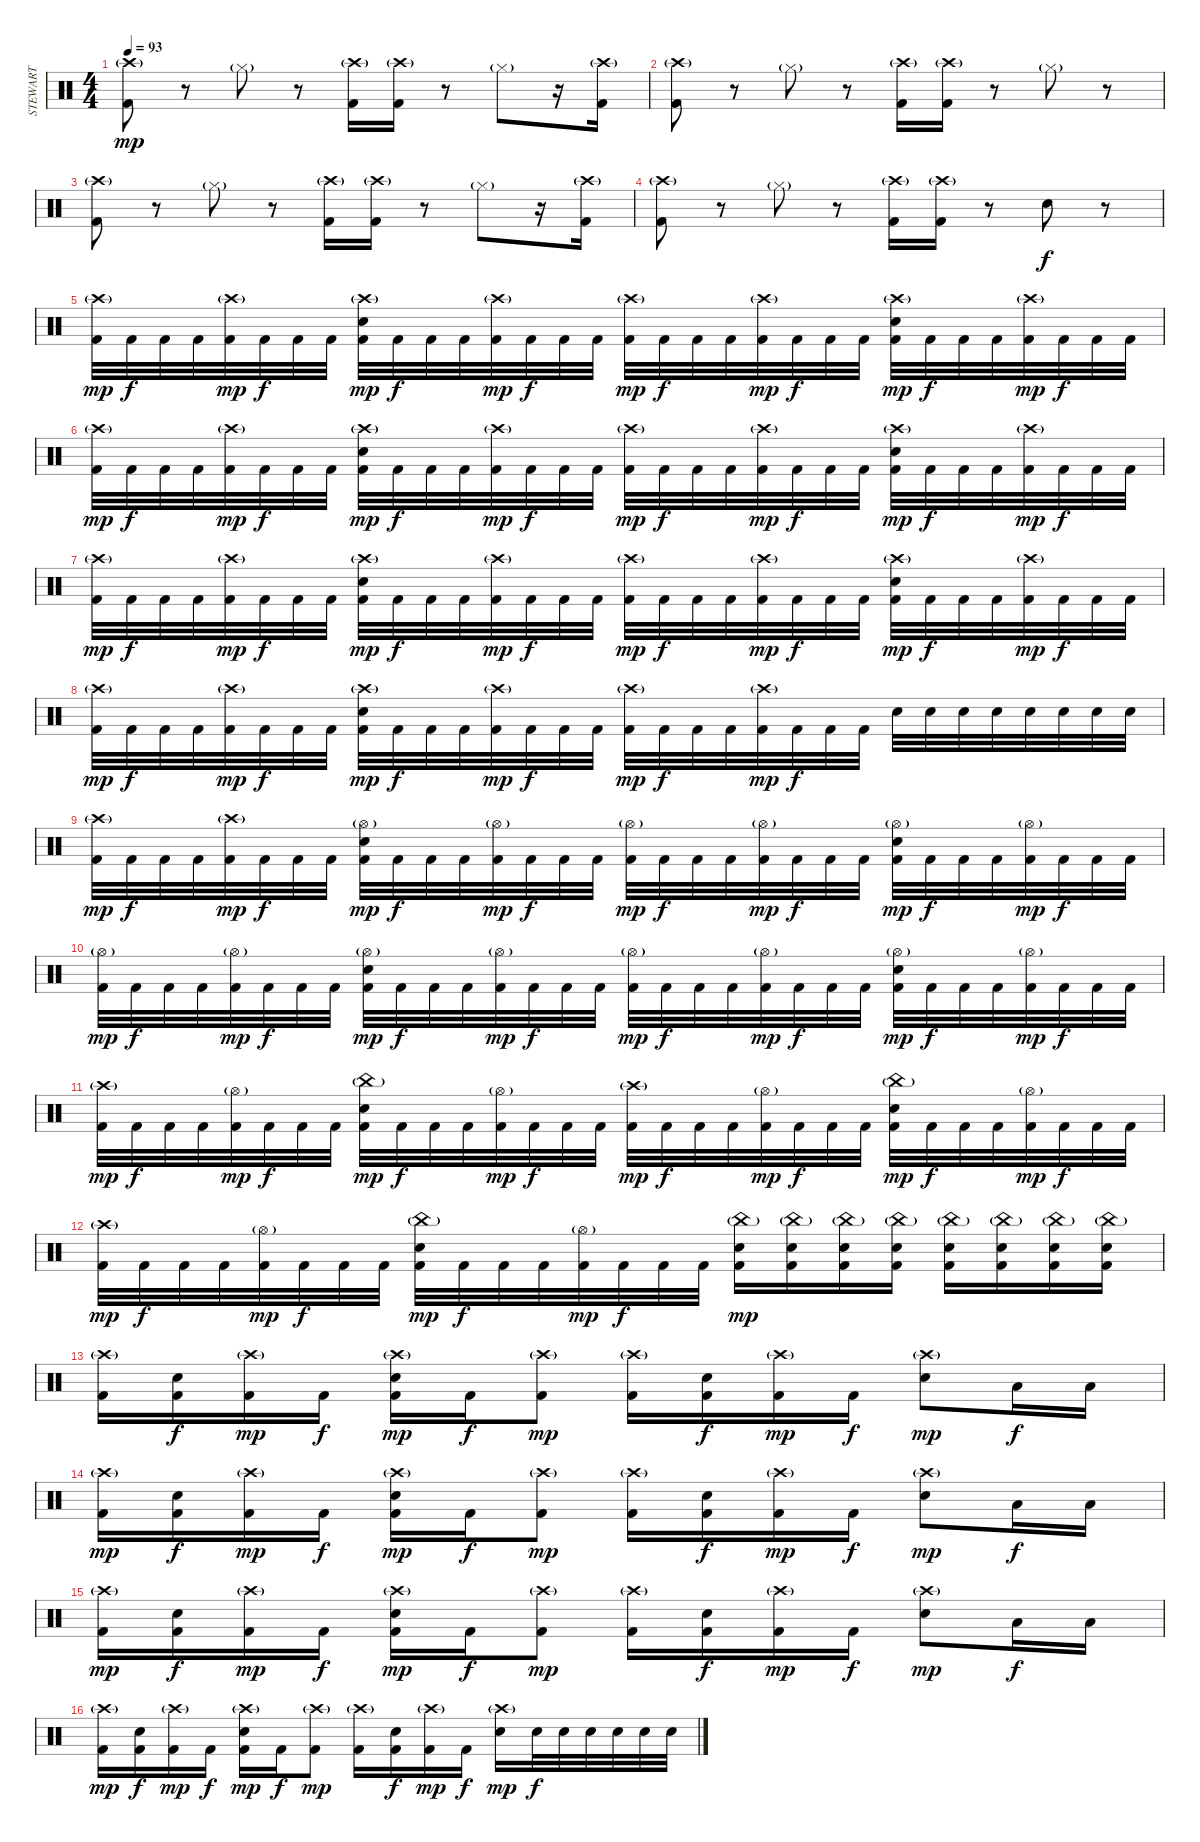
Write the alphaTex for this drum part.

\track ("STEWART" "STEWART") {instrument percussion}
\staff {score}
\articulation defaults
\ts (4 4)
\tempo 93
\clef neutral
\ks c
("Crash high (hit)"{g} "Kick (hit) 2").8{dy mp} r.8 "Hi-Hat (closed)"{g}.8 r.8 ("Crash high (hit)"{g} "Kick (hit) 2").16 ("Crash high (hit)"{g} "Kick (hit) 2").16 r.8 "Hi-Hat (closed)"{g}.8 r.16 ("Crash high (hit)"{g} "Kick (hit) 2").16 |
("Crash high (hit)"{g} "Kick (hit) 2").8 r.8 "Hi-Hat (closed)"{g}.8 r.8 ("Crash high (hit)"{g} "Kick (hit) 2").16 ("Crash high (hit)"{g} "Kick (hit) 2").16 r.8 "Hi-Hat (closed)"{g}.8 r.8 |
("Crash high (hit)"{g} "Kick (hit) 2").8 r.8 "Hi-Hat (closed)"{g}.8 r.8 ("Crash high (hit)"{g} "Kick (hit) 2").16 ("Crash high (hit)"{g} "Kick (hit) 2").16 r.8 "Hi-Hat (closed)"{g}.8 r.16 ("Crash high (hit)"{g} "Kick (hit) 2").16 |
("Crash high (hit)"{g} "Kick (hit) 2").8 r.8 "Hi-Hat (closed)"{g}.8 r.8 ("Crash high (hit)"{g} "Kick (hit) 2").16 ("Crash high (hit)"{g} "Kick (hit) 2").16 r.8 "Electric Snare (hit)".8{dy f} r.8 |
("Crash high (hit)"{g} "Kick (hit) 2").32{dy mp} "Kick (hit) 2".32{dy f} "Kick (hit) 2".32 "Kick (hit) 2".32 ("Crash high (hit)"{g} "Kick (hit) 2").32{dy mp} "Kick (hit) 2".32{dy f} "Kick (hit) 2".32 "Kick (hit) 2".32 ("Crash high (hit)"{g} "Electric Snare (hit)" "Kick (hit) 2").32{dy mp} "Kick (hit) 2".32{dy f} "Kick (hit) 2".32 "Kick (hit) 2".32 ("Crash high (hit)"{g} "Kick (hit) 2").32{dy mp} "Kick (hit) 2".32{dy f} "Kick (hit) 2".32 "Kick (hit) 2".32 ("Crash high (hit)"{g} "Kick (hit) 2").32{dy mp} "Kick (hit) 2".32{dy f} "Kick (hit) 2".32 "Kick (hit) 2".32 ("Crash high (hit)"{g} "Kick (hit) 2").32{dy mp} "Kick (hit) 2".32{dy f} "Kick (hit) 2".32 "Kick (hit) 2".32 ("Crash high (hit)"{g} "Electric Snare (hit)" "Kick (hit) 2").32{dy mp} "Kick (hit) 2".32{dy f} "Kick (hit) 2".32 "Kick (hit) 2".32 ("Crash high (hit)"{g} "Kick (hit) 2").32{dy mp} "Kick (hit) 2".32{dy f} "Kick (hit) 2".32 "Kick (hit) 2".32 |
("Crash high (hit)"{g} "Kick (hit) 2").32{dy mp} "Kick (hit) 2".32{dy f} "Kick (hit) 2".32 "Kick (hit) 2".32 ("Crash high (hit)"{g} "Kick (hit) 2").32{dy mp} "Kick (hit) 2".32{dy f} "Kick (hit) 2".32 "Kick (hit) 2".32 ("Crash high (hit)"{g} "Electric Snare (hit)" "Kick (hit) 2").32{dy mp} "Kick (hit) 2".32{dy f} "Kick (hit) 2".32 "Kick (hit) 2".32 ("Crash high (hit)"{g} "Kick (hit) 2").32{dy mp} "Kick (hit) 2".32{dy f} "Kick (hit) 2".32 "Kick (hit) 2".32 ("Crash high (hit)"{g} "Kick (hit) 2").32{dy mp} "Kick (hit) 2".32{dy f} "Kick (hit) 2".32 "Kick (hit) 2".32 ("Crash high (hit)"{g} "Kick (hit) 2").32{dy mp} "Kick (hit) 2".32{dy f} "Kick (hit) 2".32 "Kick (hit) 2".32 ("Crash high (hit)"{g} "Electric Snare (hit)" "Kick (hit) 2").32{dy mp} "Kick (hit) 2".32{dy f} "Kick (hit) 2".32 "Kick (hit) 2".32 ("Crash high (hit)"{g} "Kick (hit) 2").32{dy mp} "Kick (hit) 2".32{dy f} "Kick (hit) 2".32 "Kick (hit) 2".32 |
("Crash high (hit)"{g} "Kick (hit) 2").32{dy mp} "Kick (hit) 2".32{dy f} "Kick (hit) 2".32 "Kick (hit) 2".32 ("Crash high (hit)"{g} "Kick (hit) 2").32{dy mp} "Kick (hit) 2".32{dy f} "Kick (hit) 2".32 "Kick (hit) 2".32 ("Crash high (hit)"{g} "Electric Snare (hit)" "Kick (hit) 2").32{dy mp} "Kick (hit) 2".32{dy f} "Kick (hit) 2".32 "Kick (hit) 2".32 ("Crash high (hit)"{g} "Kick (hit) 2").32{dy mp} "Kick (hit) 2".32{dy f} "Kick (hit) 2".32 "Kick (hit) 2".32 ("Crash high (hit)"{g} "Kick (hit) 2").32{dy mp} "Kick (hit) 2".32{dy f} "Kick (hit) 2".32 "Kick (hit) 2".32 ("Crash high (hit)"{g} "Kick (hit) 2").32{dy mp} "Kick (hit) 2".32{dy f} "Kick (hit) 2".32 "Kick (hit) 2".32 ("Crash high (hit)"{g} "Electric Snare (hit)" "Kick (hit) 2").32{dy mp} "Kick (hit) 2".32{dy f} "Kick (hit) 2".32 "Kick (hit) 2".32 ("Crash high (hit)"{g} "Kick (hit) 2").32{dy mp} "Kick (hit) 2".32{dy f} "Kick (hit) 2".32 "Kick (hit) 2".32 |
("Crash high (hit)"{g} "Kick (hit) 2").32{dy mp} "Kick (hit) 2".32{dy f} "Kick (hit) 2".32 "Kick (hit) 2".32 ("Crash high (hit)"{g} "Kick (hit) 2").32{dy mp} "Kick (hit) 2".32{dy f} "Kick (hit) 2".32 "Kick (hit) 2".32 ("Crash high (hit)"{g} "Electric Snare (hit)" "Kick (hit) 2").32{dy mp} "Kick (hit) 2".32{dy f} "Kick (hit) 2".32 "Kick (hit) 2".32 ("Crash high (hit)"{g} "Kick (hit) 2").32{dy mp} "Kick (hit) 2".32{dy f} "Kick (hit) 2".32 "Kick (hit) 2".32 ("Crash high (hit)"{g} "Kick (hit) 2").32{dy mp} "Kick (hit) 2".32{dy f} "Kick (hit) 2".32 "Kick (hit) 2".32 ("Crash high (hit)"{g} "Kick (hit) 2").32{dy mp} "Kick (hit) 2".32{dy f} "Kick (hit) 2".32 "Kick (hit) 2".32 "Electric Snare (hit)".32 "Electric Snare (hit)".32 "Electric Snare (hit)".32 "Electric Snare (hit)".32 "Electric Snare (hit)".32 "Electric Snare (hit)".32 "Electric Snare (hit)".32 "Electric Snare (hit)".32 |
("Crash high (hit)"{g} "Kick (hit) 2").32{dy mp} "Kick (hit) 2".32{dy f} "Kick (hit) 2".32 "Kick (hit) 2".32 ("Crash high (hit)"{g} "Kick (hit) 2").32{dy mp} "Kick (hit) 2".32{dy f} "Kick (hit) 2".32 "Kick (hit) 2".32 ("Hi-Hat (open)"{g} "Electric Snare (hit)" "Kick (hit) 2").32{dy mp} "Kick (hit) 2".32{dy f} "Kick (hit) 2".32 "Kick (hit) 2".32 ("Hi-Hat (open)"{g} "Kick (hit) 2").32{dy mp} "Kick (hit) 2".32{dy f} "Kick (hit) 2".32 "Kick (hit) 2".32 ("Hi-Hat (open)"{g} "Kick (hit) 2").32{dy mp} "Kick (hit) 2".32{dy f} "Kick (hit) 2".32 "Kick (hit) 2".32 ("Hi-Hat (open)"{g} "Kick (hit) 2").32{dy mp} "Kick (hit) 2".32{dy f} "Kick (hit) 2".32 "Kick (hit) 2".32 ("Hi-Hat (open)"{g} "Electric Snare (hit)" "Kick (hit) 2").32{dy mp} "Kick (hit) 2".32{dy f} "Kick (hit) 2".32 "Kick (hit) 2".32 ("Hi-Hat (open)"{g} "Kick (hit) 2").32{dy mp} "Kick (hit) 2".32{dy f} "Kick (hit) 2".32 "Kick (hit) 2".32 |
("Hi-Hat (open)"{g} "Kick (hit) 2").32{dy mp} "Kick (hit) 2".32{dy f} "Kick (hit) 2".32 "Kick (hit) 2".32 ("Hi-Hat (open)"{g} "Kick (hit) 2").32{dy mp} "Kick (hit) 2".32{dy f} "Kick (hit) 2".32 "Kick (hit) 2".32 ("Hi-Hat (open)"{g} "Electric Snare (hit)" "Kick (hit) 2").32{dy mp} "Kick (hit) 2".32{dy f} "Kick (hit) 2".32 "Kick (hit) 2".32 ("Hi-Hat (open)"{g} "Kick (hit) 2").32{dy mp} "Kick (hit) 2".32{dy f} "Kick (hit) 2".32 "Kick (hit) 2".32 ("Hi-Hat (open)"{g} "Kick (hit) 2").32{dy mp} "Kick (hit) 2".32{dy f} "Kick (hit) 2".32 "Kick (hit) 2".32 ("Hi-Hat (open)"{g} "Kick (hit) 2").32{dy mp} "Kick (hit) 2".32{dy f} "Kick (hit) 2".32 "Kick (hit) 2".32 ("Hi-Hat (open)"{g} "Electric Snare (hit)" "Kick (hit) 2").32{dy mp} "Kick (hit) 2".32{dy f} "Kick (hit) 2".32 "Kick (hit) 2".32 ("Hi-Hat (open)"{g} "Kick (hit) 2").32{dy mp} "Kick (hit) 2".32{dy f} "Kick (hit) 2".32 "Kick (hit) 2".32 |
("Crash high (hit)"{g} "Kick (hit) 2").32{dy mp} "Kick (hit) 2".32{dy f} "Kick (hit) 2".32 "Kick (hit) 2".32 ("Hi-Hat (open)"{g} "Kick (hit) 2").32{dy mp} "Kick (hit) 2".32{dy f} "Kick (hit) 2".32 "Kick (hit) 2".32 ("China (hit)"{g} "Electric Snare (hit)" "Kick (hit) 2").32{dy mp} "Kick (hit) 2".32{dy f} "Kick (hit) 2".32 "Kick (hit) 2".32 ("Hi-Hat (open)"{g} "Kick (hit) 2").32{dy mp} "Kick (hit) 2".32{dy f} "Kick (hit) 2".32 "Kick (hit) 2".32 ("Crash high (hit)"{g} "Kick (hit) 2").32{dy mp} "Kick (hit) 2".32{dy f} "Kick (hit) 2".32 "Kick (hit) 2".32 ("Hi-Hat (open)"{g} "Kick (hit) 2").32{dy mp} "Kick (hit) 2".32{dy f} "Kick (hit) 2".32 "Kick (hit) 2".32 ("China (hit)"{g} "Electric Snare (hit)" "Kick (hit) 2").32{dy mp} "Kick (hit) 2".32{dy f} "Kick (hit) 2".32 "Kick (hit) 2".32 ("Hi-Hat (open)"{g} "Kick (hit) 2").32{dy mp} "Kick (hit) 2".32{dy f} "Kick (hit) 2".32 "Kick (hit) 2".32 |
("Crash high (hit)"{g} "Kick (hit) 2").32{dy mp} "Kick (hit) 2".32{dy f} "Kick (hit) 2".32 "Kick (hit) 2".32 ("Hi-Hat (open)"{g} "Kick (hit) 2").32{dy mp} "Kick (hit) 2".32{dy f} "Kick (hit) 2".32 "Kick (hit) 2".32 ("China (hit)"{g} "Electric Snare (hit)" "Kick (hit) 2").32{dy mp} "Kick (hit) 2".32{dy f} "Kick (hit) 2".32 "Kick (hit) 2".32 ("Hi-Hat (open)"{g} "Kick (hit) 2").32{dy mp} "Kick (hit) 2".32{dy f} "Kick (hit) 2".32 "Kick (hit) 2".32 ("China (hit)"{g} "Electric Snare (hit)" "Kick (hit) 2").16{dy mp} ("China (hit)"{g} "Electric Snare (hit)" "Kick (hit) 2").16 ("China (hit)"{g} "Electric Snare (hit)" "Kick (hit) 2").16 ("China (hit)"{g} "Electric Snare (hit)" "Kick (hit) 2").16 ("China (hit)"{g} "Electric Snare (hit)" "Kick (hit) 2").16 ("China (hit)"{g} "Electric Snare (hit)" "Kick (hit) 2").16 ("China (hit)"{g} "Electric Snare (hit)" "Kick (hit) 2").16 ("China (hit)"{g} "Electric Snare (hit)" "Kick (hit) 2").16 |
("Crash high (hit)"{g} "Kick (hit) 2").16 ("Electric Snare (hit)" "Kick (hit) 2").16{dy f} ("Crash high (hit)"{g} "Kick (hit) 2").16{dy mp} "Kick (hit) 2".16{dy f} ("Crash high (hit)"{g} "Electric Snare (hit)" "Kick (hit) 2").16{dy mp} "Kick (hit) 2".16{dy f} ("Crash high (hit)"{g} "Kick (hit) 2").8{dy mp} ("Crash high (hit)"{g} "Kick (hit) 2").16 ("Electric Snare (hit)" "Kick (hit) 2").16{dy f} ("Crash high (hit)"{g} "Kick (hit) 2").16{dy mp} "Kick (hit) 2".16{dy f} ("Crash high (hit)"{g} "Electric Snare (hit)").8{dy mp} "Low Tom (hit)".16{dy f} "Low Tom (hit)".16 |
("Crash high (hit)"{g} "Kick (hit) 2").16{dy mp} ("Electric Snare (hit)" "Kick (hit) 2").16{dy f} ("Crash high (hit)"{g} "Kick (hit) 2").16{dy mp} "Kick (hit) 2".16{dy f} ("Crash high (hit)"{g} "Electric Snare (hit)" "Kick (hit) 2").16{dy mp} "Kick (hit) 2".16{dy f} ("Crash high (hit)"{g} "Kick (hit) 2").8{dy mp} ("Crash high (hit)"{g} "Kick (hit) 2").16 ("Electric Snare (hit)" "Kick (hit) 2").16{dy f} ("Crash high (hit)"{g} "Kick (hit) 2").16{dy mp} "Kick (hit) 2".16{dy f} ("Crash high (hit)"{g} "Electric Snare (hit)").8{dy mp} "Low Tom (hit)".16{dy f} "Low Tom (hit)".16 |
("Crash high (hit)"{g} "Kick (hit) 2").16{dy mp} ("Electric Snare (hit)" "Kick (hit) 2").16{dy f} ("Crash high (hit)"{g} "Kick (hit) 2").16{dy mp} "Kick (hit) 2".16{dy f} ("Crash high (hit)"{g} "Electric Snare (hit)" "Kick (hit) 2").16{dy mp} "Kick (hit) 2".16{dy f} ("Crash high (hit)"{g} "Kick (hit) 2").8{dy mp} ("Crash high (hit)"{g} "Kick (hit) 2").16 ("Electric Snare (hit)" "Kick (hit) 2").16{dy f} ("Crash high (hit)"{g} "Kick (hit) 2").16{dy mp} "Kick (hit) 2".16{dy f} ("Crash high (hit)"{g} "Electric Snare (hit)").8{dy mp} "Low Tom (hit)".16{dy f} "Low Tom (hit)".16 |
("Crash high (hit)"{g} "Kick (hit) 2").16{dy mp} ("Electric Snare (hit)" "Kick (hit) 2").16{dy f} ("Crash high (hit)"{g} "Kick (hit) 2").16{dy mp} "Kick (hit) 2".16{dy f} ("Crash high (hit)"{g} "Electric Snare (hit)" "Kick (hit) 2").16{dy mp} "Kick (hit) 2".16{dy f} ("Crash high (hit)"{g} "Kick (hit) 2").8{dy mp} ("Crash high (hit)"{g} "Kick (hit) 2").16 ("Electric Snare (hit)" "Kick (hit) 2").16{dy f} ("Crash high (hit)"{g} "Kick (hit) 2").16{dy mp} "Kick (hit) 2".16{dy f} ("Crash high (hit)"{g} "Electric Snare (hit)").16{dy mp} "Electric Snare (hit)".32{dy f} "Electric Snare (hit)".32 "Electric Snare (hit)".32 "Electric Snare (hit)".32 "Electric Snare (hit)".32 "Electric Snare (hit)".32
